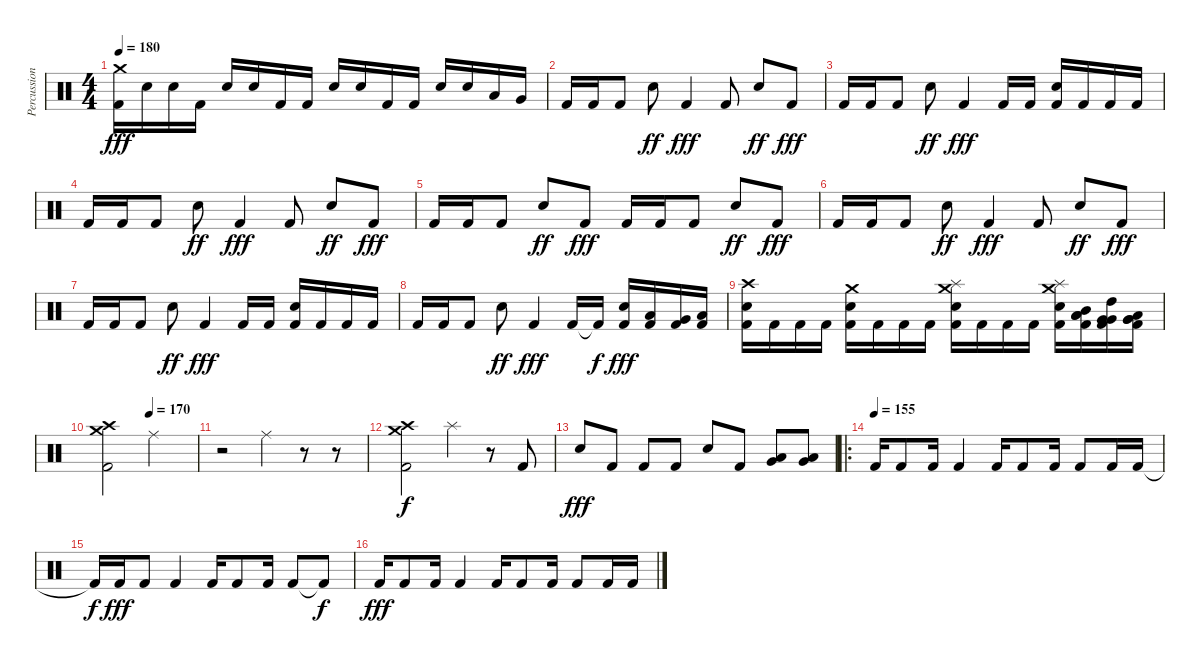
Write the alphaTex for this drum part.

\track ("Percussion (Francisco Izquierdo)" "Percussion") {instrument percussion}
\staff {score}
\articulation defaults
\ts (4 4)
\tempo 180
\clef neutral
\ks c
("Crash medium (hit)" "Kick (hit) 2").16{dy fff} "Electric Snare (hit)".16 "Electric Snare (hit)".16 "Kick (hit) 2".16 "Electric Snare (hit)".16 "Electric Snare (hit)".16 "Kick (hit) 2".16 "Kick (hit) 2".16 "Electric Snare (hit)".16 "Electric Snare (hit)".16 "Kick (hit) 2".16 "Kick (hit) 2".16 "Electric Snare (hit)".16 "Electric Snare (hit)".16 "Low Tom (hit)".16 "Very Low Tom (hit)".16 |
"Kick (hit) 2".16 "Kick (hit) 2".16 "Kick (hit) 2".8 "Electric Snare (hit)".8{dy ff} "Kick (hit) 2".4{dy fff} "Kick (hit) 2".8 "Electric Snare (hit)".8{dy ff} "Kick (hit) 2".8{dy fff} |
"Kick (hit) 2".16 "Kick (hit) 2".16 "Kick (hit) 2".8 "Electric Snare (hit)".8{dy ff} "Kick (hit) 2".4{dy fff} "Kick (hit) 2".16 "Kick (hit) 2".16 ("Electric Snare (hit)" "Kick (hit) 2").16 "Kick (hit) 2".16 "Kick (hit) 2".16 "Kick (hit) 2".16 |
"Kick (hit) 2".16 "Kick (hit) 2".16 "Kick (hit) 2".8 "Electric Snare (hit)".8{dy ff} "Kick (hit) 2".4{dy fff} "Kick (hit) 2".8 "Electric Snare (hit)".8{dy ff} "Kick (hit) 2".8{dy fff} |
"Kick (hit) 2".16 "Kick (hit) 2".16 "Kick (hit) 2".8 "Electric Snare (hit)".8{dy ff} "Kick (hit) 2".8{dy fff} "Kick (hit) 2".16 "Kick (hit) 2".16 "Kick (hit) 2".8 "Electric Snare (hit)".8{dy ff} "Kick (hit) 2".8{dy fff} |
"Kick (hit) 2".16 "Kick (hit) 2".16 "Kick (hit) 2".8 "Electric Snare (hit)".8{dy ff} "Kick (hit) 2".4{dy fff} "Kick (hit) 2".8 "Electric Snare (hit)".8{dy ff} "Kick (hit) 2".8{dy fff} |
"Kick (hit) 2".16 "Kick (hit) 2".16 "Kick (hit) 2".8 "Electric Snare (hit)".8{dy ff} "Kick (hit) 2".4{dy fff} "Kick (hit) 2".16 "Kick (hit) 2".16 ("Electric Snare (hit)" "Kick (hit) 2").16 "Kick (hit) 2".16 "Kick (hit) 2".16 "Kick (hit) 2".16 |
"Kick (hit) 2".16 "Kick (hit) 2".16 "Kick (hit) 2".8 "Electric Snare (hit)".8{dy ff} "Kick (hit) 2".4{dy fff} "Kick (hit) 2".16 "Kick (hit) 2"{t}.16{dy f} ("Electric Snare (hit)" "Kick (hit) 2").16{dy fff} ("Low Tom (hit)" "Kick (hit) 2").16 ("Very Low Tom (hit)" "Kick (hit) 2").16 ("Low Floor Tom (hit)" "Kick (hit) 2").16 |
("Crash high (hit)" "Electric Snare (hit)" "Kick (hit) 2").16 "Kick (hit) 2".16 "Kick (hit) 2".16 "Kick (hit) 2".16 ("Crash medium (hit)" "Electric Snare (hit)" "Kick (hit) 2").16 "Kick (hit) 2".16 "Kick (hit) 2".16 "Kick (hit) 2".16 ("Crash medium (hit)" "Splash (hit)" "Electric Snare (hit)" "Kick (hit) 2").16 "Kick (hit) 2".16 "Kick (hit) 2".16 "Kick (hit) 2".16 ("Crash medium (hit)" "Splash (hit)" "Electric Snare (hit)" "Kick (hit) 2").16 ("Mid Tom (hit)" "Low Tom (hit)" "Low Tom (hit)" "Kick (hit) 2").16 ("High Tom (hit)" "Very Low Tom (hit)" "Very Low Tom (hit)" "Kick (hit) 2").16 ("Low Tom (hit)" "Very Low Tom (hit)" "Very Low Tom (hit)" "Kick (hit) 2").16 |
\tempo (170 0.5)
("Crash medium (hit)" "Crash high (hit)" "Kick (hit) 2").2 "Ride (middle)".2 |
r.2 "Ride (middle)".4 r.8 r.8 |
("Crash medium (hit)" "Crash high (hit)" "Kick (hit) 2").2{dy f} "Splash (hit)".4 r.8 "Kick (hit) 2".8 |
"Electric Snare (hit)".8{dy fff} "Kick (hit) 2".8 "Kick (hit) 2".8 "Kick (hit) 2".8 "Electric Snare (hit)".8 "Kick (hit) 2".8 ("Low Tom (hit)" "Very Low Tom (hit)").8 ("Very Low Tom (hit)" "Low Floor Tom (hit)").8 |
\ro
\tempo (155)
"Kick (hit) 2".16 "Kick (hit) 2".8 "Kick (hit) 2".16 "Kick (hit) 2".4 "Kick (hit) 2".16 "Kick (hit) 2".8 "Kick (hit) 2".16 "Kick (hit) 2".8 "Kick (hit) 2".16 "Kick (hit) 2".16 |
"Kick (hit) 2"{t}.16{dy f} "Kick (hit) 2".16{dy fff} "Kick (hit) 2".8 "Kick (hit) 2".4 "Kick (hit) 2".16 "Kick (hit) 2".8 "Kick (hit) 2".16 "Kick (hit) 2".8 "Kick (hit) 2"{t}.8{dy f} |
"Kick (hit) 2".16{dy fff} "Kick (hit) 2".8 "Kick (hit) 2".16 "Kick (hit) 2".4 "Kick (hit) 2".16 "Kick (hit) 2".8 "Kick (hit) 2".16 "Kick (hit) 2".8 "Kick (hit) 2".16 "Kick (hit) 2".16
